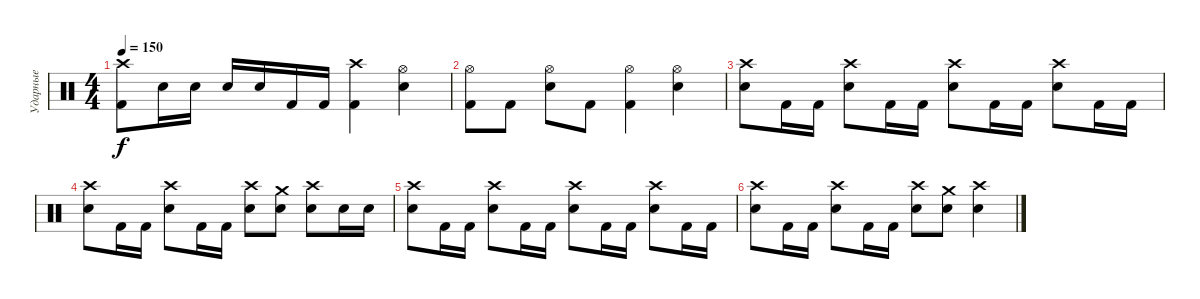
\track ("Ударные" "Ударные") {instrument percussion}
\staff {score}
\articulation defaults
\ts (4 4)
\tempo 150
\clef neutral
\ks c
("Crash high (hit)" "Kick (hit) 2").8{dy f} "Electric Snare (hit)".16 "Electric Snare (hit)".16 "Electric Snare (hit)".16 "Electric Snare (hit)".16 "Kick (hit) 2".16 "Kick (hit) 2".16 ("Crash high (hit)" "Kick (hit) 2").4 ("Hi-Hat (open)" "Electric Snare (hit)").4 |
("Hi-Hat (open)" "Kick (hit) 2").8 "Kick (hit) 2".8 ("Hi-Hat (open)" "Electric Snare (hit)").8 "Kick (hit) 2".8 ("Hi-Hat (open)" "Kick (hit) 2").4 ("Hi-Hat (open)" "Electric Snare (hit)").4 |
("Crash high (hit)" "Electric Snare (hit)").8 "Kick (hit) 2".16 "Kick (hit) 2".16 ("Crash high (hit)" "Electric Snare (hit)").8 "Kick (hit) 2".16 "Kick (hit) 2".16 ("Crash high (hit)" "Electric Snare (hit)").8 "Kick (hit) 2".16 "Kick (hit) 2".16 ("Crash high (hit)" "Electric Snare (hit)").8 "Kick (hit) 2".16 "Kick (hit) 2".16 |
("Crash high (hit)" "Electric Snare (hit)").8 "Kick (hit) 2".16 "Kick (hit) 2".16 ("Crash high (hit)" "Electric Snare (hit)").8 "Kick (hit) 2".16 "Kick (hit) 2".16 ("Crash high (hit)" "Electric Snare (hit)").8 ("Crash medium (hit)" "Electric Snare (hit)").8 ("Crash high (hit)" "Electric Snare (hit)").8 "Electric Snare (hit)".16 "Electric Snare (hit)".16 |
("Crash high (hit)" "Electric Snare (hit)").8 "Kick (hit) 2".16 "Kick (hit) 2".16 ("Crash high (hit)" "Electric Snare (hit)").8 "Kick (hit) 2".16 "Kick (hit) 2".16 ("Crash high (hit)" "Electric Snare (hit)").8 "Kick (hit) 2".16 "Kick (hit) 2".16 ("Crash high (hit)" "Electric Snare (hit)").8 "Kick (hit) 2".16 "Kick (hit) 2".16 |
("Crash high (hit)" "Electric Snare (hit)").8 "Kick (hit) 2".16 "Kick (hit) 2".16 ("Crash high (hit)" "Electric Snare (hit)").8 "Kick (hit) 2".16 "Kick (hit) 2".16 ("Crash high (hit)" "Electric Snare (hit)").8 ("Crash medium (hit)" "Electric Snare (hit)").8 ("Crash high (hit)" "Electric Snare (hit)").4
